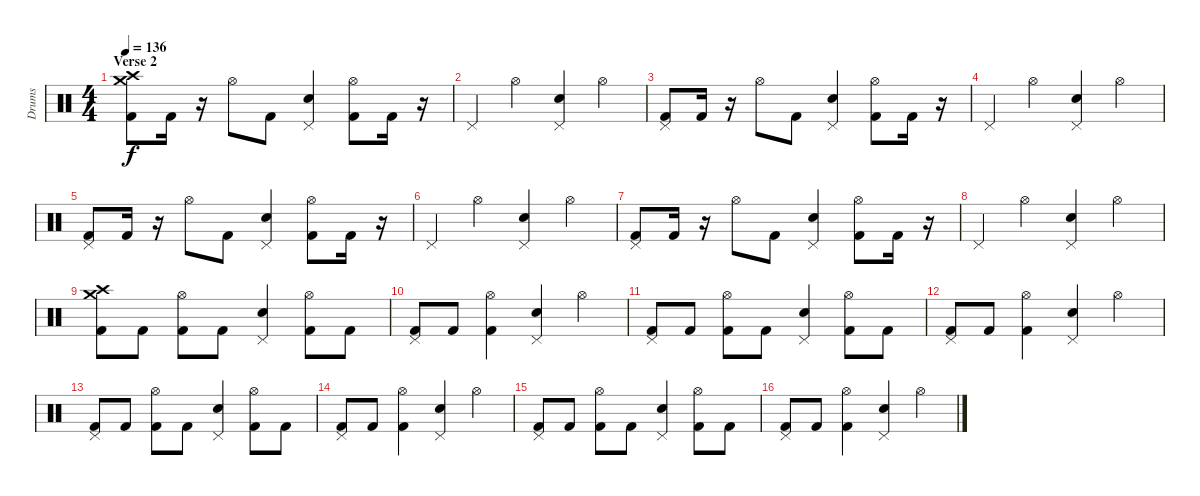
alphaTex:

\track ("Drums" "Drums") {instrument percussion}
\staff {score}
\articulation defaults
\ts (4 4)
\section ("" "Verse 2")
\tempo 136
\clef neutral
\ks c
("Crash high (hit)" "Crash medium (hit)" "Kick (hit) 2").8{dy f} "Kick (hit) 2".16 r.16 "Hi-Hat (open)".8 "Kick (hit) 2".8 ("Pedal Hi-Hat (hit)" "Electric Snare (hit)").4 ("Hi-Hat (open)" "Kick (hit) 2").8 "Kick (hit) 2".16 r.16 |
"Pedal Hi-Hat (hit)".4 "Hi-Hat (open)".4 ("Pedal Hi-Hat (hit)" "Electric Snare (hit)").4 "Hi-Hat (open)".4 |
("Pedal Hi-Hat (hit)" "Kick (hit) 2").8 "Kick (hit) 2".16 r.16 "Hi-Hat (open)".8 "Kick (hit) 2".8 ("Pedal Hi-Hat (hit)" "Electric Snare (hit)").4 ("Hi-Hat (open)" "Kick (hit) 2").8 "Kick (hit) 2".16 r.16 |
"Pedal Hi-Hat (hit)".4 "Hi-Hat (open)".4 ("Pedal Hi-Hat (hit)" "Electric Snare (hit)").4 "Hi-Hat (open)".4 |
("Pedal Hi-Hat (hit)" "Kick (hit) 2").8 "Kick (hit) 2".16 r.16 "Hi-Hat (open)".8 "Kick (hit) 2".8 ("Pedal Hi-Hat (hit)" "Electric Snare (hit)").4 ("Hi-Hat (open)" "Kick (hit) 2").8 "Kick (hit) 2".16 r.16 |
"Pedal Hi-Hat (hit)".4 "Hi-Hat (open)".4 ("Pedal Hi-Hat (hit)" "Electric Snare (hit)").4 "Hi-Hat (open)".4 |
("Pedal Hi-Hat (hit)" "Kick (hit) 2").8 "Kick (hit) 2".16 r.16 "Hi-Hat (open)".8 "Kick (hit) 2".8 ("Pedal Hi-Hat (hit)" "Electric Snare (hit)").4 ("Hi-Hat (open)" "Kick (hit) 2").8 "Kick (hit) 2".16 r.16 |
"Pedal Hi-Hat (hit)".4 "Hi-Hat (open)".4 ("Pedal Hi-Hat (hit)" "Electric Snare (hit)").4 "Hi-Hat (open)".4 |
("Crash high (hit)" "Crash medium (hit)" "Kick (hit) 2").8 "Kick (hit) 2".8 ("Hi-Hat (open)" "Kick (hit) 2").8 "Kick (hit) 2".8 ("Pedal Hi-Hat (hit)" "Electric Snare (hit)").4 ("Hi-Hat (open)" "Kick (hit) 2").8 "Kick (hit) 2".8 |
("Pedal Hi-Hat (hit)" "Kick (hit) 2").8 "Kick (hit) 2".8 ("Hi-Hat (open)" "Kick (hit) 2").4 ("Pedal Hi-Hat (hit)" "Electric Snare (hit)").4 "Hi-Hat (open)".4 |
("Pedal Hi-Hat (hit)" "Kick (hit) 2").8 "Kick (hit) 2".8 ("Hi-Hat (open)" "Kick (hit) 2").8 "Kick (hit) 2".8 ("Pedal Hi-Hat (hit)" "Electric Snare (hit)").4 ("Hi-Hat (open)" "Kick (hit) 2").8 "Kick (hit) 2".8 |
("Pedal Hi-Hat (hit)" "Kick (hit) 2").8 "Kick (hit) 2".8 ("Hi-Hat (open)" "Kick (hit) 2").4 ("Pedal Hi-Hat (hit)" "Electric Snare (hit)").4 "Hi-Hat (open)".4 |
("Pedal Hi-Hat (hit)" "Kick (hit) 2").8 "Kick (hit) 2".8 ("Hi-Hat (open)" "Kick (hit) 2").8 "Kick (hit) 2".8 ("Pedal Hi-Hat (hit)" "Electric Snare (hit)").4 ("Hi-Hat (open)" "Kick (hit) 2").8 "Kick (hit) 2".8 |
("Pedal Hi-Hat (hit)" "Kick (hit) 2").8 "Kick (hit) 2".8 ("Hi-Hat (open)" "Kick (hit) 2").4 ("Pedal Hi-Hat (hit)" "Electric Snare (hit)").4 "Hi-Hat (open)".4 |
("Pedal Hi-Hat (hit)" "Kick (hit) 2").8 "Kick (hit) 2".8 ("Hi-Hat (open)" "Kick (hit) 2").8 "Kick (hit) 2".8 ("Pedal Hi-Hat (hit)" "Electric Snare (hit)").4 ("Hi-Hat (open)" "Kick (hit) 2").8 "Kick (hit) 2".8 |
("Pedal Hi-Hat (hit)" "Kick (hit) 2").8 "Kick (hit) 2".8 ("Hi-Hat (open)" "Kick (hit) 2").4 ("Pedal Hi-Hat (hit)" "Electric Snare (hit)").4 "Hi-Hat (open)".4
